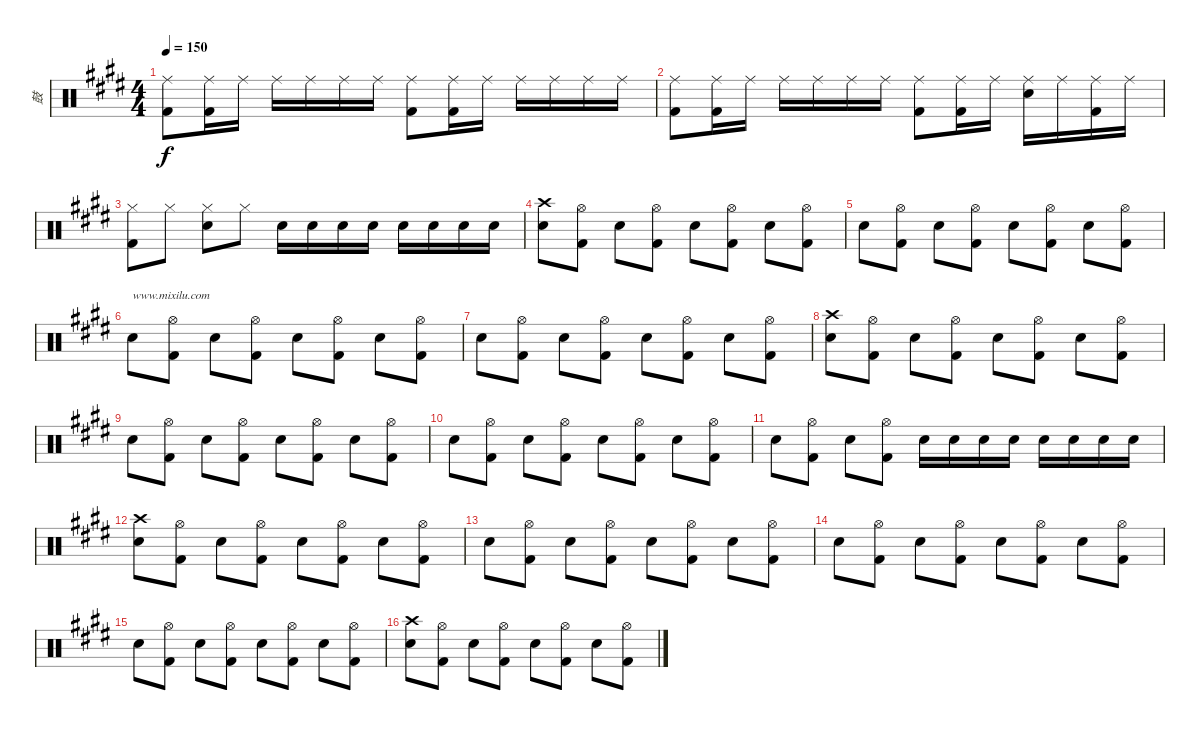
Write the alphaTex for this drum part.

\track ("鼓" "鼓") {instrument percussion}
\staff {score}
\articulation defaults
\ts (4 4)
\tempo 150
\clef neutral
\ks e
("Ride (middle)" "Kick (hit) 2").8{dy f} ("Ride (middle)" "Kick (hit) 2").16 "Ride (middle)".16 "Ride (middle)".16 "Ride (middle)".16 "Ride (middle)".16 "Ride (middle)".16 ("Ride (middle)" "Kick (hit) 2").8 ("Ride (middle)" "Kick (hit) 2").16 "Ride (middle)".16 "Ride (middle)".16 "Ride (middle)".16 "Ride (middle)".16 "Ride (middle)".16 |
("Ride (middle)" "Kick (hit) 2").8 ("Ride (middle)" "Kick (hit) 2").16 "Ride (middle)".16 "Ride (middle)".16 "Ride (middle)".16 "Ride (middle)".16 "Ride (middle)".16 ("Ride (middle)" "Kick (hit) 2").8 ("Ride (middle)" "Kick (hit) 2").16 "Ride (middle)".16 ("Ride (middle)" "Snare (hit) 2").16 "Ride (middle)".16 ("Ride (middle)" "Kick (hit) 2").16 "Ride (middle)".16 |
("Hi-Hat (closed)" "Kick (hit) 2").8 "Hi-Hat (closed)".8 ("Hi-Hat (closed)" "Snare (hit) 2").8 "Hi-Hat (closed)".8 "Snare (hit) 2".16 "Snare (hit) 2".16 "Snare (hit) 2".16 "Snare (hit) 2".16 "Snare (hit) 2".16 "Snare (hit) 2".16 "Snare (hit) 2".16 "Snare (hit) 2".16 |
("Crash high (hit)" "Snare (hit) 2").8 ("Hi-Hat (open)" "Kick (hit) 2").8 "Snare (hit) 2".8 ("Hi-Hat (open)" "Kick (hit) 2").8 "Snare (hit) 2".8 ("Hi-Hat (open)" "Kick (hit) 2").8 "Snare (hit) 2".8 ("Hi-Hat (open)" "Kick (hit) 2").8 |
"Snare (hit) 2".8 ("Hi-Hat (open)" "Kick (hit) 2").8 "Snare (hit) 2".8 ("Hi-Hat (open)" "Kick (hit) 2").8 "Snare (hit) 2".8 ("Hi-Hat (open)" "Kick (hit) 2").8 "Snare (hit) 2".8 ("Hi-Hat (open)" "Kick (hit) 2").8 |
"Snare (hit) 2".8{txt "www.mixilu.com"} ("Hi-Hat (open)" "Kick (hit) 2").8 "Snare (hit) 2".8 ("Hi-Hat (open)" "Kick (hit) 2").8 "Snare (hit) 2".8 ("Hi-Hat (open)" "Kick (hit) 2").8 "Snare (hit) 2".8 ("Hi-Hat (open)" "Kick (hit) 2").8 |
"Snare (hit) 2".8 ("Hi-Hat (open)" "Kick (hit) 2").8 "Snare (hit) 2".8 ("Hi-Hat (open)" "Kick (hit) 2").8 "Snare (hit) 2".8 ("Hi-Hat (open)" "Kick (hit) 2").8 "Snare (hit) 2".8 ("Hi-Hat (open)" "Kick (hit) 2").8 |
("Crash high (hit)" "Snare (hit) 2").8 ("Hi-Hat (open)" "Kick (hit) 2").8 "Snare (hit) 2".8 ("Hi-Hat (open)" "Kick (hit) 2").8 "Snare (hit) 2".8 ("Hi-Hat (open)" "Kick (hit) 2").8 "Snare (hit) 2".8 ("Hi-Hat (open)" "Kick (hit) 2").8 |
"Snare (hit) 2".8 ("Hi-Hat (open)" "Kick (hit) 2").8 "Snare (hit) 2".8 ("Hi-Hat (open)" "Kick (hit) 2").8 "Snare (hit) 2".8 ("Hi-Hat (open)" "Kick (hit) 2").8 "Snare (hit) 2".8 ("Hi-Hat (open)" "Kick (hit) 2").8 |
"Snare (hit) 2".8 ("Hi-Hat (open)" "Kick (hit) 2").8 "Snare (hit) 2".8 ("Hi-Hat (open)" "Kick (hit) 2").8 "Snare (hit) 2".8 ("Hi-Hat (open)" "Kick (hit) 2").8 "Snare (hit) 2".8 ("Hi-Hat (open)" "Kick (hit) 2").8 |
"Snare (hit) 2".8 ("Hi-Hat (open)" "Kick (hit) 2").8 "Snare (hit) 2".8 ("Hi-Hat (open)" "Kick (hit) 2").8 "Snare (hit) 2".16 "Snare (hit) 2".16 "Snare (hit) 2".16 "Snare (hit) 2".16 "Snare (hit) 2".16 "Snare (hit) 2".16 "Snare (hit) 2".16 "Snare (hit) 2".16 |
("Crash high (hit)" "Snare (hit) 2").8 ("Hi-Hat (open)" "Kick (hit) 2").8 "Snare (hit) 2".8 ("Hi-Hat (open)" "Kick (hit) 2").8 "Snare (hit) 2".8 ("Hi-Hat (open)" "Kick (hit) 2").8 "Snare (hit) 2".8 ("Hi-Hat (open)" "Kick (hit) 2").8 |
"Snare (hit) 2".8 ("Hi-Hat (open)" "Kick (hit) 2").8 "Snare (hit) 2".8 ("Hi-Hat (open)" "Kick (hit) 2").8 "Snare (hit) 2".8 ("Hi-Hat (open)" "Kick (hit) 2").8 "Snare (hit) 2".8 ("Hi-Hat (open)" "Kick (hit) 2").8 |
"Snare (hit) 2".8 ("Hi-Hat (open)" "Kick (hit) 2").8 "Snare (hit) 2".8 ("Hi-Hat (open)" "Kick (hit) 2").8 "Snare (hit) 2".8 ("Hi-Hat (open)" "Kick (hit) 2").8 "Snare (hit) 2".8 ("Hi-Hat (open)" "Kick (hit) 2").8 |
"Snare (hit) 2".8 ("Hi-Hat (open)" "Kick (hit) 2").8 "Snare (hit) 2".8 ("Hi-Hat (open)" "Kick (hit) 2").8 "Snare (hit) 2".8 ("Hi-Hat (open)" "Kick (hit) 2").8 "Snare (hit) 2".8 ("Hi-Hat (open)" "Kick (hit) 2").8 |
("Crash high (hit)" "Snare (hit) 2").8 ("Hi-Hat (open)" "Kick (hit) 2").8 "Snare (hit) 2".8 ("Hi-Hat (open)" "Kick (hit) 2").8 "Snare (hit) 2".8 ("Hi-Hat (open)" "Kick (hit) 2").8 "Snare (hit) 2".8 ("Hi-Hat (open)" "Kick (hit) 2").8
